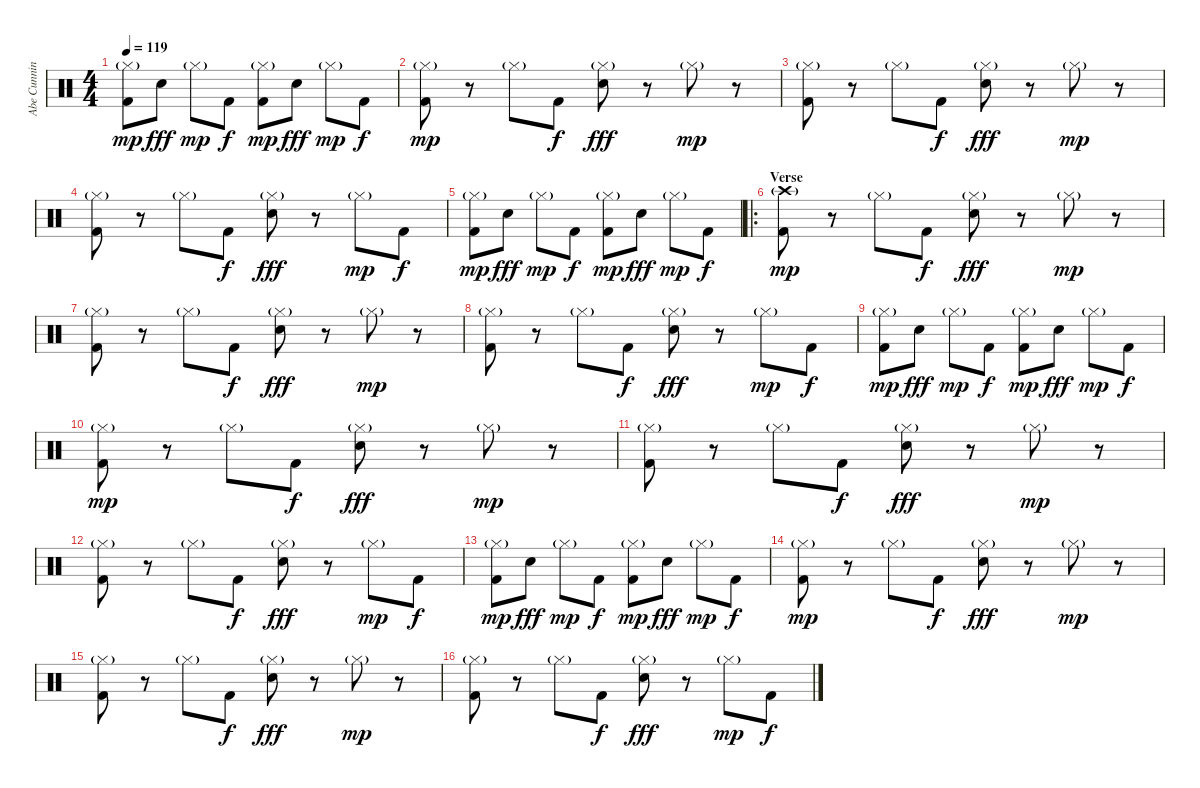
\track ("Abe Cunningham" "Abe Cunnin") {instrument percussion}
\staff {score}
\articulation defaults
\ts (4 4)
\tempo 119
\clef neutral
\ks c
("Hi-Hat (closed)"{g} "Kick (hit) 2").8{dy mp} "Snare (hit) 2".8{dy fff} "Hi-Hat (closed)"{g}.8{dy mp} "Kick (hit) 2".8{dy f} ("Hi-Hat (closed)"{g} "Kick (hit) 2").8{dy mp} "Snare (hit) 2".8{dy fff} "Hi-Hat (closed)"{g}.8{dy mp} "Kick (hit) 2".8{dy f} |
("Hi-Hat (closed)"{g} "Kick (hit) 2").8{dy mp} r.8 "Hi-Hat (closed)"{g}.8 "Kick (hit) 2".8{dy f} ("Hi-Hat (closed)"{g} "Snare (hit) 2").8{dy fff} r.8 "Hi-Hat (closed)"{g}.8{dy mp} r.8 |
("Hi-Hat (closed)"{g} "Kick (hit) 2").8 r.8 "Hi-Hat (closed)"{g}.8 "Kick (hit) 2".8{dy f} ("Hi-Hat (closed)"{g} "Snare (hit) 2").8{dy fff} r.8 "Hi-Hat (closed)"{g}.8{dy mp} r.8 |
("Hi-Hat (closed)"{g} "Kick (hit) 2").8 r.8 "Hi-Hat (closed)"{g}.8 "Kick (hit) 2".8{dy f} ("Hi-Hat (closed)"{g} "Snare (hit) 2").8{dy fff} r.8 "Hi-Hat (closed)"{g}.8{dy mp} "Kick (hit) 2".8{dy f} |
("Hi-Hat (closed)"{g} "Kick (hit) 2").8{dy mp} "Snare (hit) 2".8{dy fff} "Hi-Hat (closed)"{g}.8{dy mp} "Kick (hit) 2".8{dy f} ("Hi-Hat (closed)"{g} "Kick (hit) 2").8{dy mp} "Snare (hit) 2".8{dy fff} "Hi-Hat (closed)"{g}.8{dy mp} "Kick (hit) 2".8{dy f} |
\ro
\section ("" "Verse")
("Crash high (hit)"{g} "Kick (hit) 2").8{dy mp} r.8 "Hi-Hat (closed)"{g}.8 "Kick (hit) 2".8{dy f} ("Hi-Hat (closed)"{g} "Snare (hit) 2").8{dy fff} r.8 "Hi-Hat (closed)"{g}.8{dy mp} r.8 |
("Hi-Hat (closed)"{g} "Kick (hit) 2").8 r.8 "Hi-Hat (closed)"{g}.8 "Kick (hit) 2".8{dy f} ("Hi-Hat (closed)"{g} "Snare (hit) 2").8{dy fff} r.8 "Hi-Hat (closed)"{g}.8{dy mp} r.8 |
("Hi-Hat (closed)"{g} "Kick (hit) 2").8 r.8 "Hi-Hat (closed)"{g}.8 "Kick (hit) 2".8{dy f} ("Hi-Hat (closed)"{g} "Snare (hit) 2").8{dy fff} r.8 "Hi-Hat (closed)"{g}.8{dy mp} "Kick (hit) 2".8{dy f} |
("Hi-Hat (closed)"{g} "Kick (hit) 2").8{dy mp} "Snare (hit) 2".8{dy fff} "Hi-Hat (closed)"{g}.8{dy mp} "Kick (hit) 2".8{dy f} ("Hi-Hat (closed)"{g} "Kick (hit) 2").8{dy mp} "Snare (hit) 2".8{dy fff} "Hi-Hat (closed)"{g}.8{dy mp} "Kick (hit) 2".8{dy f} |
("Hi-Hat (closed)"{g} "Kick (hit) 2").8{dy mp} r.8 "Hi-Hat (closed)"{g}.8 "Kick (hit) 2".8{dy f} ("Hi-Hat (closed)"{g} "Snare (hit) 2").8{dy fff} r.8 "Hi-Hat (closed)"{g}.8{dy mp} r.8 |
("Hi-Hat (closed)"{g} "Kick (hit) 2").8 r.8 "Hi-Hat (closed)"{g}.8 "Kick (hit) 2".8{dy f} ("Hi-Hat (closed)"{g} "Snare (hit) 2").8{dy fff} r.8 "Hi-Hat (closed)"{g}.8{dy mp} r.8 |
("Hi-Hat (closed)"{g} "Kick (hit) 2").8 r.8 "Hi-Hat (closed)"{g}.8 "Kick (hit) 2".8{dy f} ("Hi-Hat (closed)"{g} "Snare (hit) 2").8{dy fff} r.8 "Hi-Hat (closed)"{g}.8{dy mp} "Kick (hit) 2".8{dy f} |
("Hi-Hat (closed)"{g} "Kick (hit) 2").8{dy mp} "Snare (hit) 2".8{dy fff} "Hi-Hat (closed)"{g}.8{dy mp} "Kick (hit) 2".8{dy f} ("Hi-Hat (closed)"{g} "Kick (hit) 2").8{dy mp} "Snare (hit) 2".8{dy fff} "Hi-Hat (closed)"{g}.8{dy mp} "Kick (hit) 2".8{dy f} |
("Hi-Hat (closed)"{g} "Kick (hit) 2").8{dy mp} r.8 "Hi-Hat (closed)"{g}.8 "Kick (hit) 2".8{dy f} ("Hi-Hat (closed)"{g} "Snare (hit) 2").8{dy fff} r.8 "Hi-Hat (closed)"{g}.8{dy mp} r.8 |
("Hi-Hat (closed)"{g} "Kick (hit) 2").8 r.8 "Hi-Hat (closed)"{g}.8 "Kick (hit) 2".8{dy f} ("Hi-Hat (closed)"{g} "Snare (hit) 2").8{dy fff} r.8 "Hi-Hat (closed)"{g}.8{dy mp} r.8 |
("Hi-Hat (closed)"{g} "Kick (hit) 2").8 r.8 "Hi-Hat (closed)"{g}.8 "Kick (hit) 2".8{dy f} ("Hi-Hat (closed)"{g} "Snare (hit) 2").8{dy fff} r.8 "Hi-Hat (closed)"{g}.8{dy mp} "Kick (hit) 2".8{dy f}
